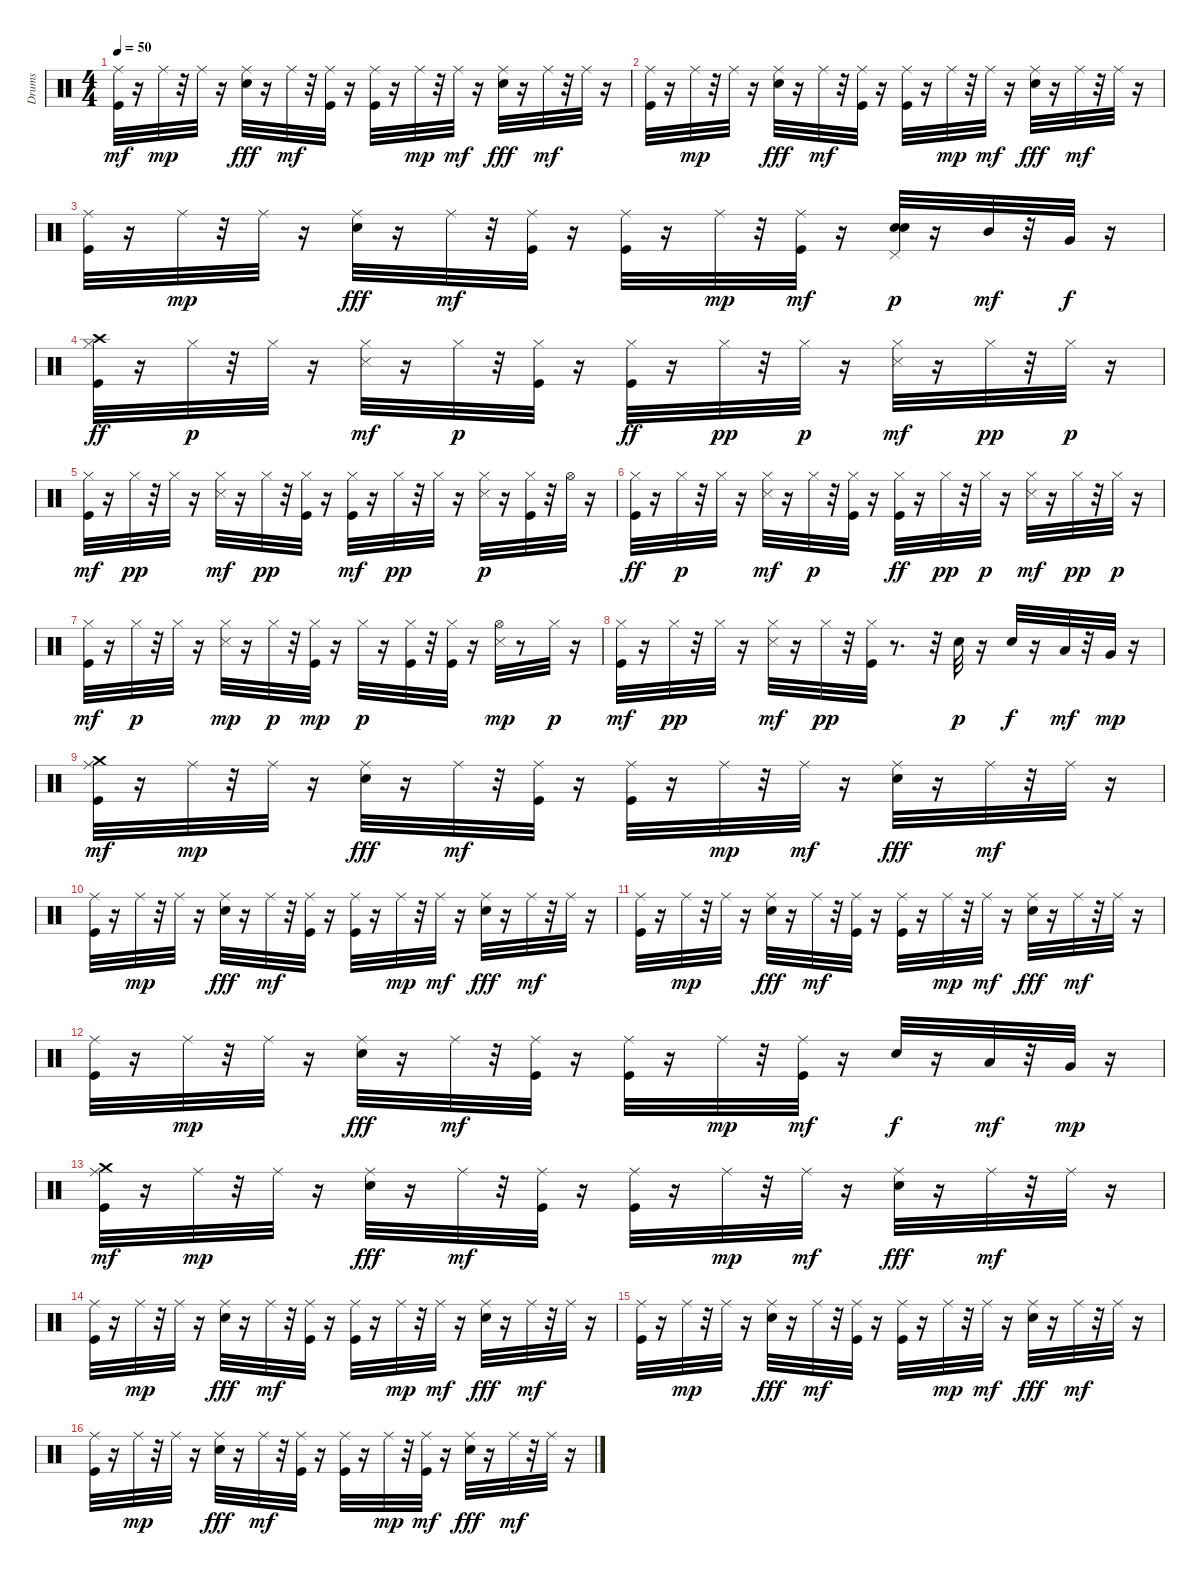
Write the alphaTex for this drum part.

\track ("Drums" "Drums") {instrument percussion}
\staff {score}
\articulation defaults
\ts (4 4)
\tempo 50
\clef neutral
\ks c
("Kick (hit)" "Ride (middle)").32{dy mf} r.16 "Ride (middle)".32{dy mp} r.32 "Ride (middle)".32 r.16 ("Snare (hit) 2" "Ride (middle)").32{dy fff} r.16 "Ride (middle)".32{dy mf} r.32 ("Kick (hit)" "Ride (middle)").32 r.16 ("Kick (hit)" "Ride (middle)").32 r.16 "Ride (middle)".32{dy mp} r.32 "Ride (middle)".32{dy mf} r.16 ("Snare (hit) 2" "Ride (middle)").32{dy fff} r.16 "Ride (middle)".32{dy mf} r.32 "Ride (middle)".32 r.16 |
("Kick (hit)" "Ride (middle)").32 r.16 "Ride (middle)".32{dy mp} r.32 "Ride (middle)".32 r.16 ("Snare (hit) 2" "Ride (middle)").32{dy fff} r.16 "Ride (middle)".32{dy mf} r.32 ("Kick (hit)" "Ride (middle)").32 r.16 ("Kick (hit)" "Ride (middle)").32 r.16 "Ride (middle)".32{dy mp} r.32 "Ride (middle)".32{dy mf} r.16 ("Snare (hit) 2" "Ride (middle)").32{dy fff} r.16 "Ride (middle)".32{dy mf} r.32 "Ride (middle)".32 r.16 |
("Kick (hit)" "Ride (middle)").32 r.16 "Ride (middle)".32{dy mp} r.32 "Ride (middle)".32 r.16 ("Snare (hit) 2" "Ride (middle)").32{dy fff} r.16 "Ride (middle)".32{dy mf} r.32 ("Kick (hit)" "Ride (middle)").32 r.16 ("Kick (hit)" "Ride (middle)").32 r.16 "Ride (middle)".32{dy mp} r.32 ("Kick (hit)" "Ride (middle)").32{dy mf} r.16 ("Snare (hit) 2" "Snare (hit) 2" "Pedal Hi-Hat (hit)").32{dy p} r.16 "Mid Tom (hit)".32{dy mf} r.32 "Very Low Tom (hit)".32{dy f} r.16 |
("Crash high (hit)" "Kick (hit)" "Hi-Hat (closed)").32{dy ff} r.16 "Hi-Hat (closed)".32{dy p} r.32 "Hi-Hat (closed)".32 r.16 ("Snare (side stick) 3" "Hi-Hat (closed)").32{dy mf} r.16 "Hi-Hat (closed)".32{dy p} r.32 ("Kick (hit)" "Hi-Hat (closed)").32 r.16 ("Kick (hit)" "Hi-Hat (closed)").32{dy ff} r.16 "Hi-Hat (closed)".32{dy pp} r.32 "Hi-Hat (closed)".32{dy p} r.16 ("Snare (side stick) 3" "Hi-Hat (closed)").32{dy mf} r.16 "Hi-Hat (closed)".32{dy pp} r.32 "Hi-Hat (closed)".32{dy p} r.16 |
("Kick (hit)" "Hi-Hat (closed)").32{dy mf} r.16 "Hi-Hat (closed)".32{dy pp} r.32 "Hi-Hat (closed)".32 r.16 ("Snare (side stick) 3" "Hi-Hat (closed)").32{dy mf} r.16 "Hi-Hat (closed)".32{dy pp} r.32 ("Kick (hit)" "Hi-Hat (closed)").32 r.16 ("Kick (hit)" "Hi-Hat (closed)").32{dy mf} r.16 "Hi-Hat (closed)".32{dy pp} r.32 "Hi-Hat (closed)".32 r.16 ("Snare (side stick) 3" "Hi-Hat (closed)").32{dy p} r.16 ("Kick (hit)" "Hi-Hat (closed)").32 r.32 "Hi-Hat (open)".32 r.16 |
("Kick (hit)" "Hi-Hat (closed)").32{dy ff} r.16 "Hi-Hat (closed)".32{dy p} r.32 "Hi-Hat (closed)".32 r.16 ("Snare (side stick) 3" "Hi-Hat (closed)").32{dy mf} r.16 "Hi-Hat (closed)".32{dy p} r.32 ("Kick (hit)" "Hi-Hat (closed)").32 r.16 ("Kick (hit)" "Hi-Hat (closed)").32{dy ff} r.16 "Hi-Hat (closed)".32{dy pp} r.32 "Hi-Hat (closed)".32{dy p} r.16 ("Snare (side stick) 3" "Hi-Hat (closed)").32{dy mf} r.16 "Hi-Hat (closed)".32{dy pp} r.32 "Hi-Hat (closed)".32{dy p} r.16 |
("Kick (hit)" "Hi-Hat (closed)").32{dy mf} r.16 "Hi-Hat (closed)".32{dy p} r.32 "Hi-Hat (closed)".32 r.16 ("Snare (side stick) 3" "Hi-Hat (closed)").32{dy mp} r.16 "Hi-Hat (closed)".32{dy p} r.32 ("Kick (hit)" "Hi-Hat (closed)").32{dy mp} r.16 "Hi-Hat (closed)".32{dy p} r.16 ("Kick (hit)" "Hi-Hat (closed)").32 r.32 ("Kick (hit)" "Hi-Hat (closed)").32 r.16 ("Snare (side stick) 3" "Hi-Hat (open)").32{dy mp} r.8 "Hi-Hat (closed)".32{dy p} r.16 |
("Kick (hit)" "Hi-Hat (closed)").32{dy mf} r.16 "Hi-Hat (closed)".32{dy pp} r.32 "Hi-Hat (closed)".32 r.16 ("Snare (side stick) 3" "Hi-Hat (closed)").32{dy mf} r.16 "Hi-Hat (closed)".32{dy pp} r.32 ("Kick (hit)" "Hi-Hat (closed)").32 r.8{d} r.32 "Snare (hit) 2".32{dy p} r.16 "Snare (hit) 2".32{dy f} r.16 "Low Tom (hit)".32{dy mf} r.32 "Very Low Tom (hit)".32{dy mp} r.16 |
("Crash medium (hit)" "Kick (hit)" "Ride (middle)").32{dy mf} r.16 "Ride (middle)".32{dy mp} r.32 "Ride (middle)".32 r.16 ("Snare (hit) 2" "Ride (middle)").32{dy fff} r.16 "Ride (middle)".32{dy mf} r.32 ("Kick (hit)" "Ride (middle)").32 r.16 ("Kick (hit)" "Ride (middle)").32 r.16 "Ride (middle)".32{dy mp} r.32 "Ride (middle)".32{dy mf} r.16 ("Snare (hit) 2" "Ride (middle)").32{dy fff} r.16 "Ride (middle)".32{dy mf} r.32 "Ride (middle)".32 r.16 |
("Kick (hit)" "Ride (middle)").32 r.16 "Ride (middle)".32{dy mp} r.32 "Ride (middle)".32 r.16 ("Snare (hit) 2" "Ride (middle)").32{dy fff} r.16 "Ride (middle)".32{dy mf} r.32 ("Kick (hit)" "Ride (middle)").32 r.16 ("Kick (hit)" "Ride (middle)").32 r.16 "Ride (middle)".32{dy mp} r.32 "Ride (middle)".32{dy mf} r.16 ("Snare (hit) 2" "Ride (middle)").32{dy fff} r.16 "Ride (middle)".32{dy mf} r.32 "Ride (middle)".32 r.16 |
("Kick (hit)" "Ride (middle)").32 r.16 "Ride (middle)".32{dy mp} r.32 "Ride (middle)".32 r.16 ("Snare (hit) 2" "Ride (middle)").32{dy fff} r.16 "Ride (middle)".32{dy mf} r.32 ("Kick (hit)" "Ride (middle)").32 r.16 ("Kick (hit)" "Ride (middle)").32 r.16 "Ride (middle)".32{dy mp} r.32 "Ride (middle)".32{dy mf} r.16 ("Snare (hit) 2" "Ride (middle)").32{dy fff} r.16 "Ride (middle)".32{dy mf} r.32 "Ride (middle)".32 r.16 |
("Kick (hit)" "Ride (middle)").32 r.16 "Ride (middle)".32{dy mp} r.32 "Ride (middle)".32 r.16 ("Snare (hit) 2" "Ride (middle)").32{dy fff} r.16 "Ride (middle)".32{dy mf} r.32 ("Kick (hit)" "Ride (middle)").32 r.16 ("Kick (hit)" "Ride (middle)").32 r.16 "Ride (middle)".32{dy mp} r.32 ("Kick (hit)" "Ride (middle)").32{dy mf} r.16 "Snare (hit) 2".32{dy f} r.16 "Low Tom (hit)".32{dy mf} r.32 "Very Low Tom (hit)".32{dy mp} r.16 |
("Crash medium (hit)" "Kick (hit)" "Ride (middle)").32{dy mf} r.16 "Ride (middle)".32{dy mp} r.32 "Ride (middle)".32 r.16 ("Snare (hit) 2" "Ride (middle)").32{dy fff} r.16 "Ride (middle)".32{dy mf} r.32 ("Kick (hit)" "Ride (middle)").32 r.16 ("Kick (hit)" "Ride (middle)").32 r.16 "Ride (middle)".32{dy mp} r.32 "Ride (middle)".32{dy mf} r.16 ("Snare (hit) 2" "Ride (middle)").32{dy fff} r.16 "Ride (middle)".32{dy mf} r.32 "Ride (middle)".32 r.16 |
("Kick (hit)" "Ride (middle)").32 r.16 "Ride (middle)".32{dy mp} r.32 "Ride (middle)".32 r.16 ("Snare (hit) 2" "Ride (middle)").32{dy fff} r.16 "Ride (middle)".32{dy mf} r.32 ("Kick (hit)" "Ride (middle)").32 r.16 ("Kick (hit)" "Ride (middle)").32 r.16 "Ride (middle)".32{dy mp} r.32 "Ride (middle)".32{dy mf} r.16 ("Snare (hit) 2" "Ride (middle)").32{dy fff} r.16 "Ride (middle)".32{dy mf} r.32 "Ride (middle)".32 r.16 |
("Kick (hit)" "Ride (middle)").32 r.16 "Ride (middle)".32{dy mp} r.32 "Ride (middle)".32 r.16 ("Snare (hit) 2" "Ride (middle)").32{dy fff} r.16 "Ride (middle)".32{dy mf} r.32 ("Kick (hit)" "Ride (middle)").32 r.16 ("Kick (hit)" "Ride (middle)").32 r.16 "Ride (middle)".32{dy mp} r.32 "Ride (middle)".32{dy mf} r.16 ("Snare (hit) 2" "Ride (middle)").32{dy fff} r.16 "Ride (middle)".32{dy mf} r.32 "Ride (middle)".32 r.16 |
("Kick (hit)" "Ride (middle)").32 r.16 "Ride (middle)".32{dy mp} r.32 "Ride (middle)".32 r.16 ("Snare (hit) 2" "Ride (middle)").32{dy fff} r.16 "Ride (middle)".32{dy mf} r.32 ("Kick (hit)" "Ride (middle)").32 r.16 ("Kick (hit)" "Ride (middle)").32 r.16 "Ride (middle)".32{dy mp} r.32 ("Kick (hit)" "Ride (middle)").32{dy mf} r.16 ("Snare (hit) 2" "Ride (middle)").32{dy fff} r.16 "Ride (middle)".32{dy mf} r.32 "Ride (middle)".32 r.16
